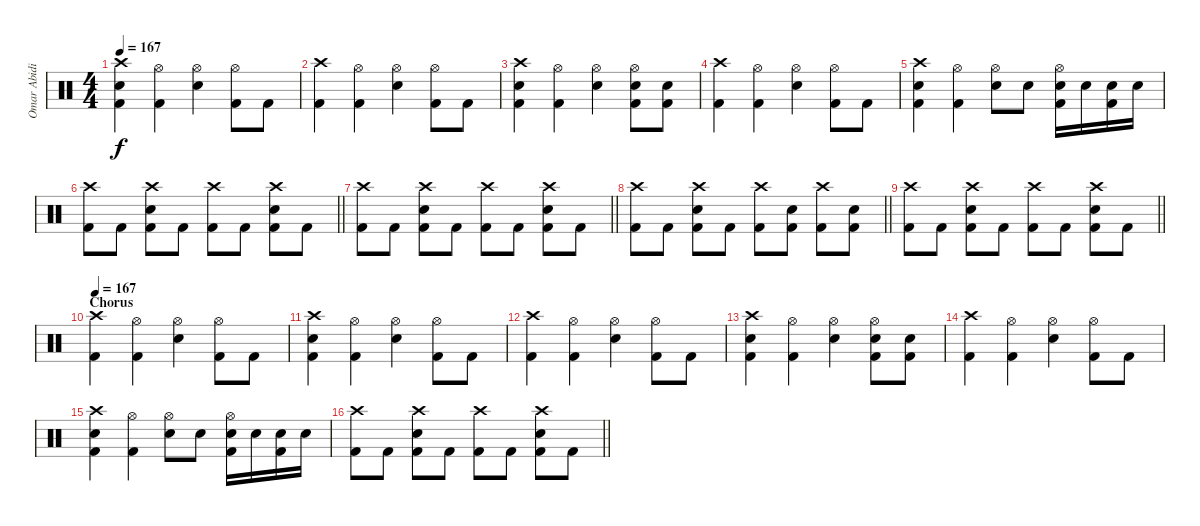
\track ("Omar Abidi" "Omar Abidi") {instrument percussion}
\staff {score}
\articulation defaults
\ts (4 4)
\tempo 167
\clef neutral
\ks c
("Crash high (hit)" "Electric Snare (hit)" "Kick (hit) 2").4{dy f} ("Hi-Hat (open)" "Kick (hit) 2").4 ("Hi-Hat (open)" "Electric Snare (hit)").4 ("Hi-Hat (open)" "Kick (hit) 2").8 "Kick (hit) 2".8 |
("Crash high (hit)" "Kick (hit) 2").4 ("Hi-Hat (open)" "Kick (hit) 2").4 ("Hi-Hat (open)" "Electric Snare (hit)").4 ("Hi-Hat (open)" "Kick (hit) 2").8 "Kick (hit) 2".8 |
("Crash high (hit)" "Electric Snare (hit)" "Kick (hit) 2").4 ("Hi-Hat (open)" "Kick (hit) 2").4 ("Hi-Hat (open)" "Electric Snare (hit)").4 ("Hi-Hat (open)" "Electric Snare (hit)" "Kick (hit) 2").8 ("Electric Snare (hit)" "Kick (hit) 2").8 |
("Crash high (hit)" "Kick (hit) 2").4 ("Hi-Hat (open)" "Kick (hit) 2").4 ("Hi-Hat (open)" "Electric Snare (hit)").4 ("Hi-Hat (open)" "Kick (hit) 2").8 "Kick (hit) 2".8 |
("Crash high (hit)" "Electric Snare (hit)" "Kick (hit) 2").4 ("Hi-Hat (open)" "Kick (hit) 2").4 ("Hi-Hat (open)" "Electric Snare (hit)").8 "Electric Snare (hit)".8 ("Hi-Hat (open)" "Electric Snare (hit)" "Kick (hit) 2").16 "Electric Snare (hit)".16 ("Electric Snare (hit)" "Kick (hit) 2").16 "Electric Snare (hit)".16 |
\barLineRight lightlight
("Crash high (hit)" "Kick (hit) 2").8 "Kick (hit) 2".8 ("Crash high (hit)" "Electric Snare (hit)" "Kick (hit) 2").8 "Kick (hit) 2".8 ("Crash high (hit)" "Kick (hit) 2").8 "Kick (hit) 2".8 ("Crash high (hit)" "Electric Snare (hit)" "Kick (hit) 2").8 "Kick (hit) 2".8 |
\barLineRight lightlight
("Crash high (hit)" "Kick (hit) 2").8 "Kick (hit) 2".8 ("Crash high (hit)" "Electric Snare (hit)" "Kick (hit) 2").8 "Kick (hit) 2".8 ("Crash high (hit)" "Kick (hit) 2").8 "Kick (hit) 2".8 ("Crash high (hit)" "Electric Snare (hit)" "Kick (hit) 2").8 "Kick (hit) 2".8 |
\barLineRight lightlight
("Crash high (hit)" "Kick (hit) 2").8 "Kick (hit) 2".8 ("Crash high (hit)" "Electric Snare (hit)" "Kick (hit) 2").8 "Kick (hit) 2".8 ("Crash high (hit)" "Kick (hit) 2").8 ("Electric Snare (hit)" "Kick (hit) 2").8 ("Crash high (hit)" "Kick (hit) 2").8 ("Electric Snare (hit)" "Kick (hit) 2").8 |
\barLineRight lightlight
("Crash high (hit)" "Kick (hit) 2").8 "Kick (hit) 2".8 ("Crash high (hit)" "Electric Snare (hit)" "Kick (hit) 2").8 "Kick (hit) 2".8 ("Crash high (hit)" "Kick (hit) 2").8 "Kick (hit) 2".8 ("Crash high (hit)" "Electric Snare (hit)" "Kick (hit) 2").8 "Kick (hit) 2".8 |
\section ("" "Chorus")
\tempo 167
("Crash high (hit)" "Kick (hit) 2").4 ("Hi-Hat (open)" "Kick (hit) 2").4 ("Hi-Hat (open)" "Electric Snare (hit)").4 ("Hi-Hat (open)" "Kick (hit) 2").8 "Kick (hit) 2".8 |
("Crash high (hit)" "Electric Snare (hit)" "Kick (hit) 2").4 ("Hi-Hat (open)" "Kick (hit) 2").4 ("Hi-Hat (open)" "Electric Snare (hit)").4 ("Hi-Hat (open)" "Kick (hit) 2").8 "Kick (hit) 2".8 |
("Crash high (hit)" "Kick (hit) 2").4 ("Hi-Hat (open)" "Kick (hit) 2").4 ("Hi-Hat (open)" "Electric Snare (hit)").4 ("Hi-Hat (open)" "Kick (hit) 2").8 "Kick (hit) 2".8 |
("Crash high (hit)" "Electric Snare (hit)" "Kick (hit) 2").4 ("Hi-Hat (open)" "Kick (hit) 2").4 ("Hi-Hat (open)" "Electric Snare (hit)").4 ("Hi-Hat (open)" "Electric Snare (hit)" "Kick (hit) 2").8 ("Electric Snare (hit)" "Kick (hit) 2").8 |
("Crash high (hit)" "Kick (hit) 2").4 ("Hi-Hat (open)" "Kick (hit) 2").4 ("Hi-Hat (open)" "Electric Snare (hit)").4 ("Hi-Hat (open)" "Kick (hit) 2").8 "Kick (hit) 2".8 |
("Crash high (hit)" "Electric Snare (hit)" "Kick (hit) 2").4 ("Hi-Hat (open)" "Kick (hit) 2").4 ("Hi-Hat (open)" "Electric Snare (hit)").8 "Electric Snare (hit)".8 ("Hi-Hat (open)" "Electric Snare (hit)" "Kick (hit) 2").16 "Electric Snare (hit)".16 ("Electric Snare (hit)" "Kick (hit) 2").16 "Electric Snare (hit)".16 |
\barLineRight lightlight
("Crash high (hit)" "Kick (hit) 2").8 "Kick (hit) 2".8 ("Crash high (hit)" "Electric Snare (hit)" "Kick (hit) 2").8 "Kick (hit) 2".8 ("Crash high (hit)" "Kick (hit) 2").8 "Kick (hit) 2".8 ("Crash high (hit)" "Electric Snare (hit)" "Kick (hit) 2").8 "Kick (hit) 2".8
